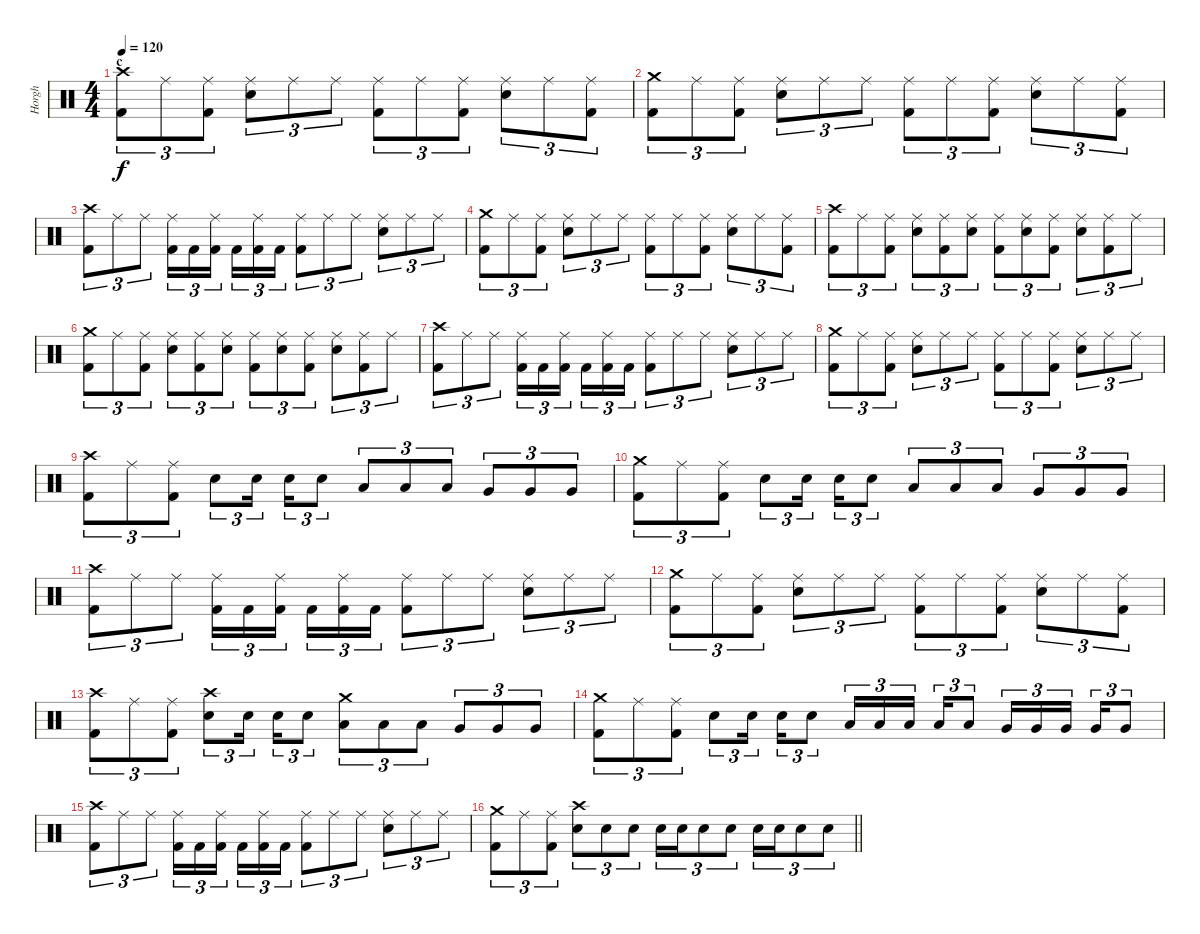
\track ("Horgh" "Horgh") {instrument percussion}
\staff {score}
\articulation defaults
\ts (4 4)
\section ("" "c")
\tempo 120
\clef neutral
\ks c
("Crash high (hit)" "Kick (hit) 2").8{tu (3 2) dy f} "Ride (middle)".8{tu (3 2)} ("Ride (middle)" "Kick (hit) 2").8{tu (3 2)} ("Ride (middle)" "Electric Snare (hit)").8{tu (3 2)} "Ride (middle)".8{tu (3 2)} "Ride (middle)".8{tu (3 2)} ("Ride (middle)" "Kick (hit) 2").8{tu (3 2)} "Ride (middle)".8{tu (3 2)} ("Ride (middle)" "Kick (hit) 2").8{tu (3 2)} ("Ride (middle)" "Electric Snare (hit)").8{tu (3 2)} "Ride (middle)".8{tu (3 2)} ("Ride (middle)" "Kick (hit) 2").8{tu (3 2)} |
("Crash medium (hit)" "Kick (hit) 2").8{tu (3 2)} "Ride (middle)".8{tu (3 2)} ("Ride (middle)" "Kick (hit) 2").8{tu (3 2)} ("Ride (middle)" "Electric Snare (hit)").8{tu (3 2)} "Ride (middle)".8{tu (3 2)} "Ride (middle)".8{tu (3 2)} ("Ride (middle)" "Kick (hit) 2").8{tu (3 2)} "Ride (middle)".8{tu (3 2)} ("Ride (middle)" "Kick (hit) 2").8{tu (3 2)} ("Ride (middle)" "Electric Snare (hit)").8{tu (3 2)} "Ride (middle)".8{tu (3 2)} ("Ride (middle)" "Kick (hit) 2").8{tu (3 2)} |
("Crash high (hit)" "Kick (hit) 2").8{tu (3 2)} "Ride (middle)".8{tu (3 2)} "Ride (middle)".8{tu (3 2)} ("Ride (middle)" "Kick (hit) 2").16{tu (3 2)} "Kick (hit) 2".16{tu (3 2)} ("Ride (middle)" "Kick (hit) 2").16{tu (3 2) beam splitsecondary} "Kick (hit) 2".16{tu (3 2)} ("Ride (middle)" "Kick (hit) 2").16{tu (3 2)} "Kick (hit) 2".16{tu (3 2)} ("Ride (middle)" "Kick (hit) 2").8{tu (3 2)} "Ride (middle)".8{tu (3 2)} "Ride (middle)".8{tu (3 2)} ("Ride (middle)" "Electric Snare (hit)").8{tu (3 2)} "Ride (middle)".8{tu (3 2)} "Ride (middle)".8{tu (3 2)} |
("Crash medium (hit)" "Kick (hit) 2").8{tu (3 2)} "Ride (middle)".8{tu (3 2)} ("Ride (middle)" "Kick (hit) 2").8{tu (3 2)} ("Ride (middle)" "Electric Snare (hit)").8{tu (3 2)} "Ride (middle)".8{tu (3 2)} "Ride (middle)".8{tu (3 2)} ("Ride (middle)" "Kick (hit) 2").8{tu (3 2)} "Ride (middle)".8{tu (3 2)} ("Ride (middle)" "Kick (hit) 2").8{tu (3 2)} ("Ride (middle)" "Electric Snare (hit)").8{tu (3 2)} "Ride (middle)".8{tu (3 2)} ("Ride (middle)" "Kick (hit) 2").8{tu (3 2)} |
("Crash high (hit)" "Kick (hit) 2").8{tu (3 2)} "Ride (middle)".8{tu (3 2)} ("Ride (middle)" "Kick (hit) 2").8{tu (3 2)} ("Ride (middle)" "Electric Snare (hit)").8{tu (3 2)} ("Ride (middle)" "Kick (hit) 2").8{tu (3 2)} ("Ride (middle)" "Electric Snare (hit)").8{tu (3 2)} ("Ride (middle)" "Kick (hit) 2").8{tu (3 2)} ("Ride (middle)" "Electric Snare (hit)").8{tu (3 2)} ("Ride (middle)" "Kick (hit) 2").8{tu (3 2)} ("Ride (middle)" "Electric Snare (hit)").8{tu (3 2)} ("Ride (middle)" "Kick (hit) 2").8{tu (3 2)} "Ride (middle)".8{tu (3 2)} |
("Crash medium (hit)" "Kick (hit) 2").8{tu (3 2)} "Ride (middle)".8{tu (3 2)} ("Ride (middle)" "Kick (hit) 2").8{tu (3 2)} ("Ride (middle)" "Electric Snare (hit)").8{tu (3 2)} ("Ride (middle)" "Kick (hit) 2").8{tu (3 2)} ("Ride (middle)" "Electric Snare (hit)").8{tu (3 2)} ("Ride (middle)" "Kick (hit) 2").8{tu (3 2)} ("Ride (middle)" "Electric Snare (hit)").8{tu (3 2)} ("Ride (middle)" "Kick (hit) 2").8{tu (3 2)} ("Ride (middle)" "Electric Snare (hit)").8{tu (3 2)} ("Ride (middle)" "Kick (hit) 2").8{tu (3 2)} "Ride (middle)".8{tu (3 2)} |
("Crash high (hit)" "Kick (hit) 2").8{tu (3 2)} "Ride (middle)".8{tu (3 2)} "Ride (middle)".8{tu (3 2)} ("Ride (middle)" "Kick (hit) 2").16{tu (3 2)} "Kick (hit) 2".16{tu (3 2)} ("Ride (middle)" "Kick (hit) 2").16{tu (3 2) beam splitsecondary} "Kick (hit) 2".16{tu (3 2)} ("Ride (middle)" "Kick (hit) 2").16{tu (3 2)} "Kick (hit) 2".16{tu (3 2)} ("Ride (middle)" "Kick (hit) 2").8{tu (3 2)} "Ride (middle)".8{tu (3 2)} "Ride (middle)".8{tu (3 2)} ("Ride (middle)" "Electric Snare (hit)").8{tu (3 2)} "Ride (middle)".8{tu (3 2)} "Ride (middle)".8{tu (3 2)} |
("Crash medium (hit)" "Kick (hit) 2").8{tu (3 2)} "Ride (middle)".8{tu (3 2)} ("Ride (middle)" "Kick (hit) 2").8{tu (3 2)} ("Ride (middle)" "Electric Snare (hit)").8{tu (3 2)} "Ride (middle)".8{tu (3 2)} "Ride (middle)".8{tu (3 2)} ("Ride (middle)" "Kick (hit) 2").8{tu (3 2)} "Ride (middle)".8{tu (3 2)} ("Ride (middle)" "Kick (hit) 2").8{tu (3 2)} ("Ride (middle)" "Electric Snare (hit)").8{tu (3 2)} "Ride (middle)".8{tu (3 2)} "Ride (middle)".8{tu (3 2)} |
("Crash high (hit)" "Kick (hit) 2").8{tu (3 2)} "Ride (middle)".8{tu (3 2)} ("Ride (middle)" "Kick (hit) 2").8{tu (3 2)} "Electric Snare (hit)".8{tu (3 2)} "Electric Snare (hit)".16{tu (3 2) beam splitsecondary} "Electric Snare (hit)".16{tu (3 2)} "Electric Snare (hit)".8{tu (3 2)} "Low Tom (hit)".8{tu (3 2)} "Low Tom (hit)".8{tu (3 2)} "Low Tom (hit)".8{tu (3 2)} "Very Low Tom (hit)".8{tu (3 2)} "Very Low Tom (hit)".8{tu (3 2)} "Very Low Tom (hit)".8{tu (3 2)} |
("Crash medium (hit)" "Kick (hit) 2").8{tu (3 2)} "Ride (middle)".8{tu (3 2)} ("Ride (middle)" "Kick (hit) 2").8{tu (3 2)} "Electric Snare (hit)".8{tu (3 2)} "Electric Snare (hit)".16{tu (3 2) beam splitsecondary} "Electric Snare (hit)".16{tu (3 2)} "Electric Snare (hit)".8{tu (3 2)} "Low Tom (hit)".8{tu (3 2)} "Low Tom (hit)".8{tu (3 2)} "Low Tom (hit)".8{tu (3 2)} "Very Low Tom (hit)".8{tu (3 2)} "Very Low Tom (hit)".8{tu (3 2)} "Very Low Tom (hit)".8{tu (3 2)} |
("Crash high (hit)" "Kick (hit) 2").8{tu (3 2)} "Ride (middle)".8{tu (3 2)} "Ride (middle)".8{tu (3 2)} ("Ride (middle)" "Kick (hit) 2").16{tu (3 2)} "Kick (hit) 2".16{tu (3 2)} ("Ride (middle)" "Kick (hit) 2").16{tu (3 2) beam splitsecondary} "Kick (hit) 2".16{tu (3 2)} ("Ride (middle)" "Kick (hit) 2").16{tu (3 2)} "Kick (hit) 2".16{tu (3 2)} ("Ride (middle)" "Kick (hit) 2").8{tu (3 2)} "Ride (middle)".8{tu (3 2)} "Ride (middle)".8{tu (3 2)} ("Ride (middle)" "Electric Snare (hit)").8{tu (3 2)} "Ride (middle)".8{tu (3 2)} "Ride (middle)".8{tu (3 2)} |
("Crash medium (hit)" "Kick (hit) 2").8{tu (3 2)} "Ride (middle)".8{tu (3 2)} ("Ride (middle)" "Kick (hit) 2").8{tu (3 2)} ("Ride (middle)" "Electric Snare (hit)").8{tu (3 2)} "Ride (middle)".8{tu (3 2)} "Ride (middle)".8{tu (3 2)} ("Ride (middle)" "Kick (hit) 2").8{tu (3 2)} "Ride (middle)".8{tu (3 2)} ("Ride (middle)" "Kick (hit) 2").8{tu (3 2)} ("Ride (middle)" "Electric Snare (hit)").8{tu (3 2)} "Ride (middle)".8{tu (3 2)} ("Ride (middle)" "Kick (hit) 2").8{tu (3 2)} |
("Crash high (hit)" "Kick (hit) 2").8{tu (3 2)} "Ride (middle)".8{tu (3 2)} ("Ride (middle)" "Kick (hit) 2").8{tu (3 2)} ("Crash high (hit)" "Electric Snare (hit)").8{tu (3 2)} "Electric Snare (hit)".16{tu (3 2) beam splitsecondary} "Electric Snare (hit)".16{tu (3 2)} "Electric Snare (hit)".8{tu (3 2)} ("Crash medium (hit)" "Low Tom (hit)").8{tu (3 2)} "Low Tom (hit)".8{tu (3 2)} "Low Tom (hit)".8{tu (3 2)} "Very Low Tom (hit)".8{tu (3 2)} "Very Low Tom (hit)".8{tu (3 2)} "Very Low Tom (hit)".8{tu (3 2)} |
("Crash medium (hit)" "Kick (hit) 2").8{tu (3 2)} "Ride (middle)".8{tu (3 2)} ("Ride (middle)" "Kick (hit) 2").8{tu (3 2)} "Electric Snare (hit)".8{tu (3 2)} "Electric Snare (hit)".16{tu (3 2) beam splitsecondary} "Electric Snare (hit)".16{tu (3 2)} "Electric Snare (hit)".8{tu (3 2)} "Low Tom (hit)".16{tu (3 2)} "Low Tom (hit)".16{tu (3 2)} "Low Tom (hit)".16{tu (3 2) beam splitsecondary} "Low Tom (hit)".16{tu (3 2)} "Low Tom (hit)".8{tu (3 2)} "Very Low Tom (hit)".16{tu (3 2)} "Very Low Tom (hit)".16{tu (3 2)} "Very Low Tom (hit)".16{tu (3 2) beam splitsecondary} "Very Low Tom (hit)".16{tu (3 2)} "Very Low Tom (hit)".8{tu (3 2)} |
("Crash high (hit)" "Kick (hit) 2").8{tu (3 2)} "Ride (middle)".8{tu (3 2)} "Ride (middle)".8{tu (3 2)} ("Ride (middle)" "Kick (hit) 2").16{tu (3 2)} "Kick (hit) 2".16{tu (3 2)} ("Ride (middle)" "Kick (hit) 2").16{tu (3 2) beam splitsecondary} "Kick (hit) 2".16{tu (3 2)} ("Ride (middle)" "Kick (hit) 2").16{tu (3 2)} "Kick (hit) 2".16{tu (3 2)} ("Ride (middle)" "Kick (hit) 2").8{tu (3 2)} "Ride (middle)".8{tu (3 2)} "Ride (middle)".8{tu (3 2)} ("Ride (middle)" "Electric Snare (hit)").8{tu (3 2)} "Ride (middle)".8{tu (3 2)} "Ride (middle)".8{tu (3 2)} |
\barLineRight lightlight
("Crash medium (hit)" "Kick (hit) 2").8{tu (3 2)} "Ride (middle)".8{tu (3 2)} ("Ride (middle)" "Kick (hit) 2").8{tu (3 2)} ("Crash high (hit)" "Electric Snare (hit)").8{tu (3 2)} "Electric Snare (hit)".8{tu (3 2)} "Electric Snare (hit)".8{tu (3 2)} "Electric Snare (hit)".16{tu (3 2)} "Electric Snare (hit)".16{tu (3 2)} "Electric Snare (hit)".8{tu (3 2)} "Electric Snare (hit)".8{tu (3 2)} "Electric Snare (hit)".16{tu (3 2)} "Electric Snare (hit)".16{tu (3 2)} "Electric Snare (hit)".8{tu (3 2)} "Electric Snare (hit)".8{tu (3 2)}
